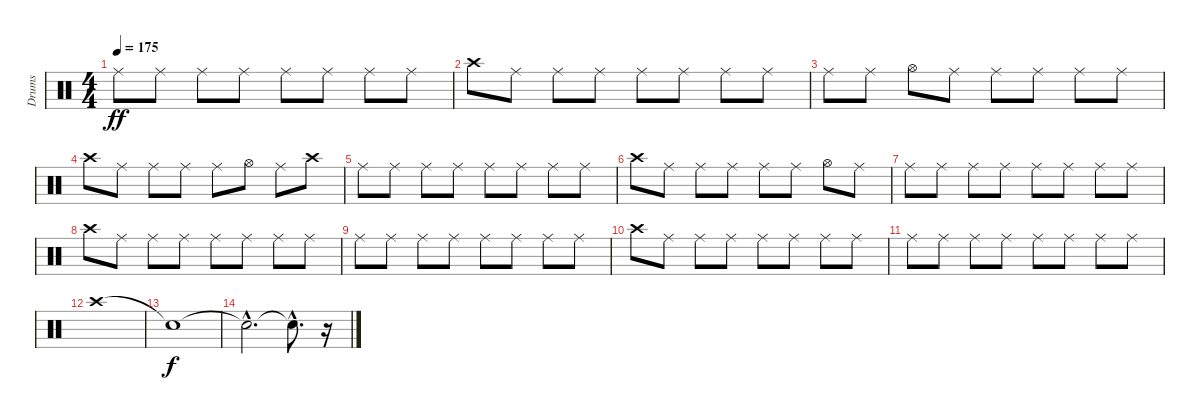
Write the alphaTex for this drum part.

\track ("Drums" "Drums") {instrument percussion}
\staff {score}
\articulation defaults
\ts (4 4)
\tempo 175
\clef neutral
\ks c "Ride (middle)".8{dy ff} "Ride (middle)".8 "Ride (middle)".8 "Ride (middle)".8 "Ride (middle)".8 "Ride (middle)".8 "Ride (middle)".8 "Ride (middle)".8
|
"Crash high (hit)".8 "Ride (middle)".8 "Ride (middle)".8 "Ride (middle)".8 "Ride (middle)".8 "Ride (middle)".8 "Ride (middle)".8 "Ride (middle)".8 |
"Ride (middle)".8 "Ride (middle)".8 "Hi-Hat (open)".8 "Ride (middle)".8 "Ride (middle)".8 "Ride (middle)".8 "Ride (middle)".8 "Ride (middle)".8 |
"Crash high (hit)".8 "Ride (middle)".8 "Ride (middle)".8 "Ride (middle)".8 "Ride (middle)".8 "Hi-Hat (open)".8 "Ride (middle)".8 "Crash high (hit)".8 |
"Ride (middle)".8 "Ride (middle)".8 "Ride (middle)".8 "Ride (middle)".8 "Ride (middle)".8 "Ride (middle)".8 "Ride (middle)".8 "Ride (middle)".8 |
"Crash high (hit)".8 "Ride (middle)".8 "Ride (middle)".8 "Ride (middle)".8 "Ride (middle)".8 "Ride (middle)".8 "Hi-Hat (open)".8 "Ride (middle)".8 |
"Ride (middle)".8 "Ride (middle)".8 "Ride (middle)".8 "Ride (middle)".8 "Ride (middle)".8 "Ride (middle)".8 "Ride (middle)".8 "Ride (middle)".8 |
"Crash high (hit)".8 "Ride (middle)".8 "Ride (middle)".8 "Ride (middle)".8 "Ride (middle)".8 "Ride (middle)".8 "Ride (middle)".8 "Ride (middle)".8 |
"Ride (middle)".8 "Ride (middle)".8 "Ride (middle)".8 "Ride (middle)".8 "Ride (middle)".8 "Ride (middle)".8 "Ride (middle)".8 "Ride (middle)".8 |
"Crash high (hit)".8 "Ride (middle)".8 "Ride (middle)".8 "Ride (middle)".8 "Ride (middle)".8 "Ride (middle)".8 "Ride (middle)".8 "Ride (middle)".8 |
"Ride (middle)".8 "Ride (middle)".8 "Ride (middle)".8 "Ride (middle)".8 "Ride (middle)".8 "Ride (middle)".8 "Ride (middle)".8 "Ride (middle)".8 |
"Crash high (hit)".1 |
"Snare (hit)"{t}.1{dy f} |
"Snare (hit)"{hac t}.2{d} "Snare (hit)"{hac t}.8{d} r.16
